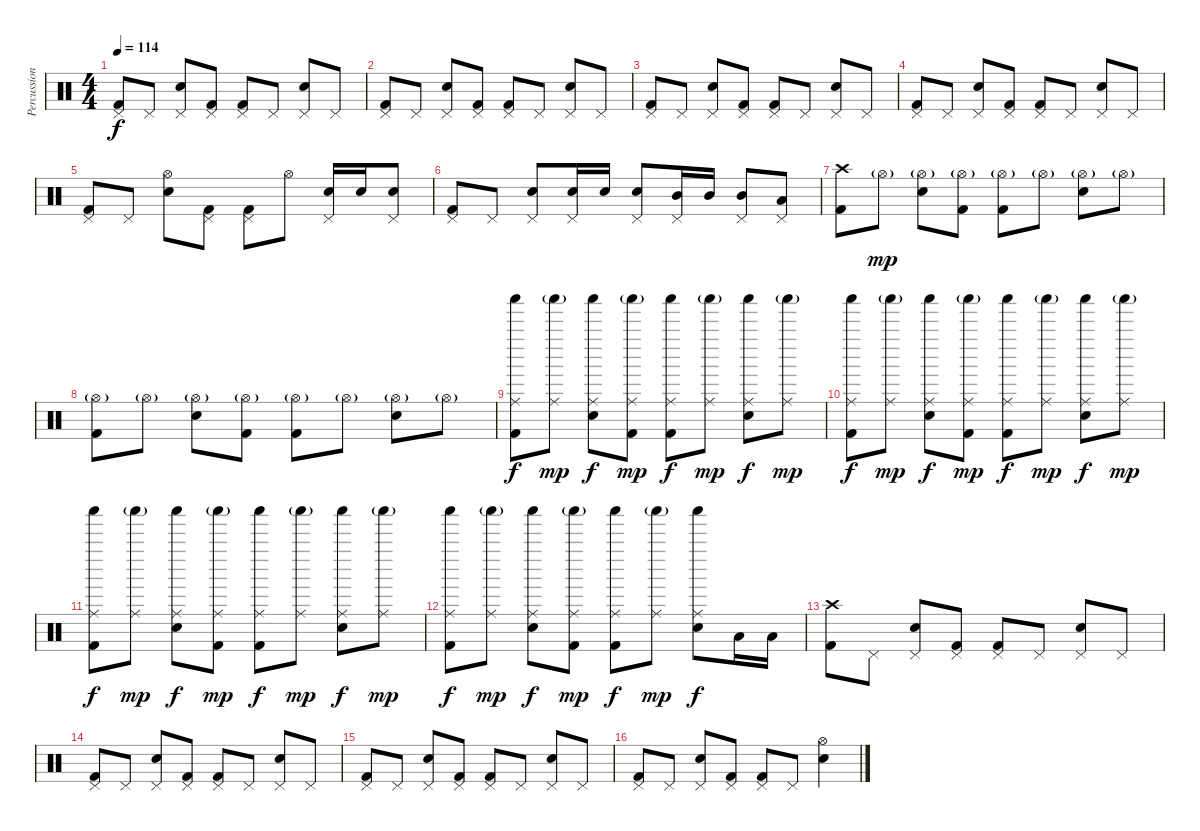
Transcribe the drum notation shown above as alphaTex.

\track ("Percussion" "Percussion") {instrument percussion}
\staff {score}
\articulation defaults
\ts (4 4)
\tempo 114
\clef neutral
\ks c
("Pedal Hi-Hat (hit)" "Kick (hit) 2").8{dy f} "Pedal Hi-Hat (hit)".8 ("Pedal Hi-Hat (hit)" "Electric Snare (hit)").8 ("Pedal Hi-Hat (hit)" "Kick (hit) 2").8 ("Pedal Hi-Hat (hit)" "Kick (hit) 2").8 "Pedal Hi-Hat (hit)".8 ("Pedal Hi-Hat (hit)" "Electric Snare (hit)").8 "Pedal Hi-Hat (hit)".8 |
("Pedal Hi-Hat (hit)" "Kick (hit) 2").8 "Pedal Hi-Hat (hit)".8 ("Pedal Hi-Hat (hit)" "Electric Snare (hit)").8 ("Pedal Hi-Hat (hit)" "Kick (hit) 2").8 ("Pedal Hi-Hat (hit)" "Kick (hit) 2").8 "Pedal Hi-Hat (hit)".8 ("Pedal Hi-Hat (hit)" "Electric Snare (hit)").8 "Pedal Hi-Hat (hit)".8 |
("Pedal Hi-Hat (hit)" "Kick (hit) 2").8 "Pedal Hi-Hat (hit)".8 ("Pedal Hi-Hat (hit)" "Electric Snare (hit)").8 ("Pedal Hi-Hat (hit)" "Kick (hit) 2").8 ("Pedal Hi-Hat (hit)" "Kick (hit) 2").8 "Pedal Hi-Hat (hit)".8 ("Pedal Hi-Hat (hit)" "Electric Snare (hit)").8 "Pedal Hi-Hat (hit)".8 |
("Pedal Hi-Hat (hit)" "Kick (hit) 2").8 "Pedal Hi-Hat (hit)".8 ("Pedal Hi-Hat (hit)" "Electric Snare (hit)").8 ("Pedal Hi-Hat (hit)" "Kick (hit) 2").8 ("Pedal Hi-Hat (hit)" "Kick (hit) 2").8 "Pedal Hi-Hat (hit)".8 ("Pedal Hi-Hat (hit)" "Electric Snare (hit)").8 "Pedal Hi-Hat (hit)".8 |
("Pedal Hi-Hat (hit)" "Kick (hit) 2").8 "Pedal Hi-Hat (hit)".8 ("Hi-Hat (open)" "Electric Snare (hit)").8 ("Pedal Hi-Hat (hit)" "Kick (hit) 2").8 ("Pedal Hi-Hat (hit)" "Kick (hit) 2").8 "Hi-Hat (open)".8 ("Pedal Hi-Hat (hit)" "Electric Snare (hit)").16 "Electric Snare (hit)".16 ("Pedal Hi-Hat (hit)" "Electric Snare (hit)").8 |
("Pedal Hi-Hat (hit)" "Kick (hit) 2").8 "Pedal Hi-Hat (hit)".8 ("Pedal Hi-Hat (hit)" "Electric Snare (hit)").8 ("Pedal Hi-Hat (hit)" "Electric Snare (hit)").16 "Electric Snare (hit)".16 ("Pedal Hi-Hat (hit)" "Electric Snare (hit)").8 ("Pedal Hi-Hat (hit)" "Mid Tom (hit)").16 "Mid Tom (hit)".16 ("Pedal Hi-Hat (hit)" "Mid Tom (hit)").8 ("Pedal Hi-Hat (hit)" "Low Tom (hit)").8 |
("Crash high (hit)" "Kick (hit) 2").8 "Hi-Hat (open)"{g}.8{dy mp} ("Hi-Hat (open)"{g} "Electric Snare (hit)").8 ("Hi-Hat (open)"{g} "Kick (hit) 2").8 ("Hi-Hat (open)"{g} "Kick (hit) 2").8 "Hi-Hat (open)"{g}.8 ("Hi-Hat (open)"{g} "Electric Snare (hit)").8 "Hi-Hat (open)"{g}.8 |
("Hi-Hat (open)"{g} "Kick (hit) 2").8 "Hi-Hat (open)"{g}.8 ("Hi-Hat (open)"{g} "Electric Snare (hit)").8 ("Hi-Hat (open)"{g} "Kick (hit) 2").8 ("Hi-Hat (open)"{g} "Kick (hit) 2").8 "Hi-Hat (open)"{g}.8 ("Hi-Hat (open)"{g} "Electric Snare (hit)").8 "Hi-Hat (open)"{g}.8 |
("Shaker (hit)" "Ride (middle)" "Kick (hit) 2").8{dy f} ("Shaker (hit)"{g} "Ride (middle)").8{dy mp} ("Shaker (hit)" "Ride (middle)" "Electric Snare (hit)").8{dy f} ("Shaker (hit)"{g} "Ride (middle)" "Kick (hit) 2").8{dy mp} ("Shaker (hit)" "Ride (middle)" "Kick (hit) 2").8{dy f} ("Shaker (hit)"{g} "Ride (middle)").8{dy mp} ("Shaker (hit)" "Ride (middle)" "Electric Snare (hit)").8{dy f} ("Shaker (hit)"{g} "Ride (middle)").8{dy mp} |
("Shaker (hit)" "Ride (middle)" "Kick (hit) 2").8{dy f} ("Shaker (hit)"{g} "Ride (middle)").8{dy mp} ("Shaker (hit)" "Ride (middle)" "Electric Snare (hit)").8{dy f} ("Shaker (hit)"{g} "Ride (middle)" "Kick (hit) 2").8{dy mp} ("Shaker (hit)" "Ride (middle)" "Kick (hit) 2").8{dy f} ("Shaker (hit)"{g} "Ride (middle)").8{dy mp} ("Shaker (hit)" "Ride (middle)" "Electric Snare (hit)").8{dy f} ("Shaker (hit)"{g} "Ride (middle)").8{dy mp} |
("Shaker (hit)" "Ride (middle)" "Kick (hit) 2").8{dy f} ("Shaker (hit)"{g} "Ride (middle)").8{dy mp} ("Shaker (hit)" "Ride (middle)" "Electric Snare (hit)").8{dy f} ("Shaker (hit)"{g} "Ride (middle)" "Kick (hit) 2").8{dy mp} ("Shaker (hit)" "Ride (middle)" "Kick (hit) 2").8{dy f} ("Shaker (hit)"{g} "Ride (middle)").8{dy mp} ("Shaker (hit)" "Ride (middle)" "Electric Snare (hit)").8{dy f} ("Shaker (hit)"{g} "Ride (middle)").8{dy mp} |
("Shaker (hit)" "Ride (middle)" "Kick (hit) 2").8{dy f} ("Shaker (hit)"{g} "Ride (middle)").8{dy mp} ("Shaker (hit)" "Ride (middle)" "Electric Snare (hit)").8{dy f} ("Shaker (hit)"{g} "Ride (middle)" "Kick (hit) 2").8{dy mp} ("Shaker (hit)" "Ride (middle)" "Kick (hit) 2").8{dy f} ("Shaker (hit)"{g} "Ride (middle)").8{dy mp} ("Shaker (hit)" "Ride (middle)" "Electric Snare (hit)").8{dy f} "Low Tom (hit)".16 "Low Tom (hit)".16 |
("Crash high (hit)" "Kick (hit) 2").8 "Pedal Hi-Hat (hit)".8 ("Pedal Hi-Hat (hit)" "Electric Snare (hit)").8 ("Pedal Hi-Hat (hit)" "Kick (hit) 2").8 ("Pedal Hi-Hat (hit)" "Kick (hit) 2").8 "Pedal Hi-Hat (hit)".8 ("Pedal Hi-Hat (hit)" "Electric Snare (hit)").8 "Pedal Hi-Hat (hit)".8 |
("Pedal Hi-Hat (hit)" "Kick (hit) 2").8 "Pedal Hi-Hat (hit)".8 ("Pedal Hi-Hat (hit)" "Electric Snare (hit)").8 ("Pedal Hi-Hat (hit)" "Kick (hit) 2").8 ("Pedal Hi-Hat (hit)" "Kick (hit) 2").8 "Pedal Hi-Hat (hit)".8 ("Pedal Hi-Hat (hit)" "Electric Snare (hit)").8 "Pedal Hi-Hat (hit)".8 |
("Pedal Hi-Hat (hit)" "Kick (hit) 2").8 "Pedal Hi-Hat (hit)".8 ("Pedal Hi-Hat (hit)" "Electric Snare (hit)").8 ("Pedal Hi-Hat (hit)" "Kick (hit) 2").8 ("Pedal Hi-Hat (hit)" "Kick (hit) 2").8 "Pedal Hi-Hat (hit)".8 ("Pedal Hi-Hat (hit)" "Electric Snare (hit)").8 "Pedal Hi-Hat (hit)".8 |
("Pedal Hi-Hat (hit)" "Kick (hit) 2").8 "Pedal Hi-Hat (hit)".8 ("Pedal Hi-Hat (hit)" "Electric Snare (hit)").8 ("Pedal Hi-Hat (hit)" "Kick (hit) 2").8 ("Pedal Hi-Hat (hit)" "Kick (hit) 2").8 "Pedal Hi-Hat (hit)".8 ("Hi-Hat (open)" "Electric Snare (hit)").4
